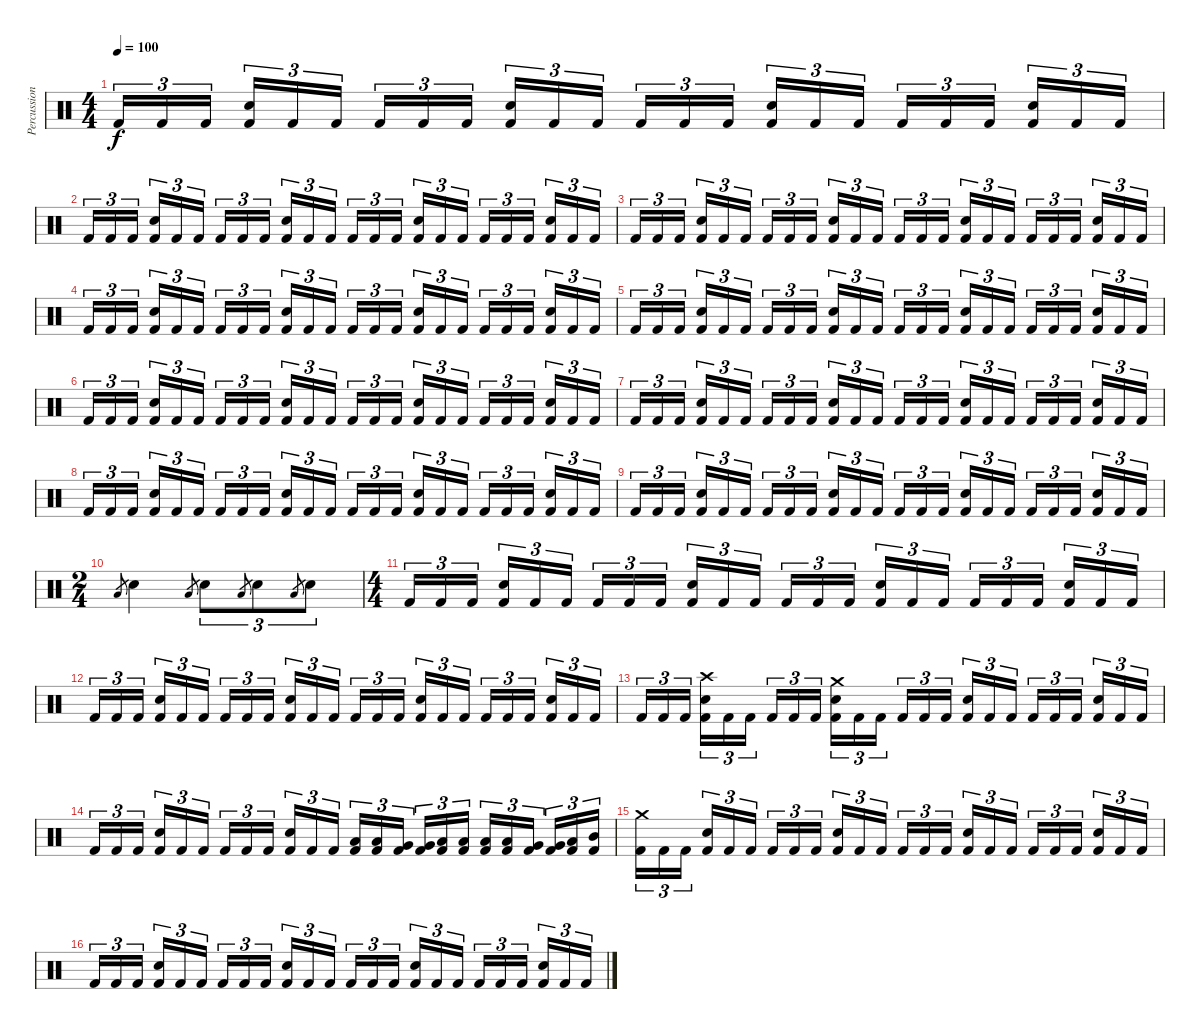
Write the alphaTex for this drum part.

\track ("Percussions" "Percussion") {instrument percussion}
\staff {score}
\articulation defaults
\ts (4 4)
\tempo 100
\clef neutral
\ks c "Kick (hit) 2".16{tu (3 2) dy f} "Kick (hit) 2".16{tu (3 2)} "Kick (hit) 2".16{tu (3 2)}
("Electric Snare (hit)" "Kick (hit) 2").16{tu (3 2)} "Kick (hit) 2".16{tu (3 2)} "Kick (hit) 2".16{tu (3 2)} "Kick (hit) 2".16{tu (3 2)} "Kick (hit) 2".16{tu (3 2)} "Kick (hit) 2".16{tu (3 2)} ("Electric Snare (hit)" "Kick (hit) 2").16{tu (3 2)} "Kick (hit) 2".16{tu (3 2)} "Kick (hit) 2".16{tu (3 2)} "Kick (hit) 2".16{tu (3 2)} "Kick (hit) 2".16{tu (3 2)} "Kick (hit) 2".16{tu (3 2)} ("Electric Snare (hit)" "Kick (hit) 2").16{tu (3 2)} "Kick (hit) 2".16{tu (3 2)} "Kick (hit) 2".16{tu (3 2)} "Kick (hit) 2".16{tu (3 2)} "Kick (hit) 2".16{tu (3 2)} "Kick (hit) 2".16{tu (3 2)} ("Electric Snare (hit)" "Kick (hit) 2").16{tu (3 2)} "Kick (hit) 2".16{tu (3 2)} "Kick (hit) 2".16{tu (3 2)} |
"Kick (hit) 2".16{tu (3 2)} "Kick (hit) 2".16{tu (3 2)} "Kick (hit) 2".16{tu (3 2)} ("Electric Snare (hit)" "Kick (hit) 2").16{tu (3 2)} "Kick (hit) 2".16{tu (3 2)} "Kick (hit) 2".16{tu (3 2)} "Kick (hit) 2".16{tu (3 2)} "Kick (hit) 2".16{tu (3 2)} "Kick (hit) 2".16{tu (3 2)} ("Electric Snare (hit)" "Kick (hit) 2").16{tu (3 2)} "Kick (hit) 2".16{tu (3 2)} "Kick (hit) 2".16{tu (3 2)} "Kick (hit) 2".16{tu (3 2)} "Kick (hit) 2".16{tu (3 2)} "Kick (hit) 2".16{tu (3 2)} ("Electric Snare (hit)" "Kick (hit) 2").16{tu (3 2)} "Kick (hit) 2".16{tu (3 2)} "Kick (hit) 2".16{tu (3 2)} "Kick (hit) 2".16{tu (3 2)} "Kick (hit) 2".16{tu (3 2)} "Kick (hit) 2".16{tu (3 2)} ("Electric Snare (hit)" "Kick (hit) 2").16{tu (3 2)} "Kick (hit) 2".16{tu (3 2)} "Kick (hit) 2".16{tu (3 2)} |
"Kick (hit) 2".16{tu (3 2)} "Kick (hit) 2".16{tu (3 2)} "Kick (hit) 2".16{tu (3 2)} ("Electric Snare (hit)" "Kick (hit) 2").16{tu (3 2)} "Kick (hit) 2".16{tu (3 2)} "Kick (hit) 2".16{tu (3 2)} "Kick (hit) 2".16{tu (3 2)} "Kick (hit) 2".16{tu (3 2)} "Kick (hit) 2".16{tu (3 2)} ("Electric Snare (hit)" "Kick (hit) 2").16{tu (3 2)} "Kick (hit) 2".16{tu (3 2)} "Kick (hit) 2".16{tu (3 2)} "Kick (hit) 2".16{tu (3 2)} "Kick (hit) 2".16{tu (3 2)} "Kick (hit) 2".16{tu (3 2)} ("Electric Snare (hit)" "Kick (hit) 2").16{tu (3 2)} "Kick (hit) 2".16{tu (3 2)} "Kick (hit) 2".16{tu (3 2)} "Kick (hit) 2".16{tu (3 2)} "Kick (hit) 2".16{tu (3 2)} "Kick (hit) 2".16{tu (3 2)} ("Electric Snare (hit)" "Kick (hit) 2").16{tu (3 2)} "Kick (hit) 2".16{tu (3 2)} "Kick (hit) 2".16{tu (3 2)} |
"Kick (hit) 2".16{tu (3 2)} "Kick (hit) 2".16{tu (3 2)} "Kick (hit) 2".16{tu (3 2)} ("Electric Snare (hit)" "Kick (hit) 2").16{tu (3 2)} "Kick (hit) 2".16{tu (3 2)} "Kick (hit) 2".16{tu (3 2)} "Kick (hit) 2".16{tu (3 2)} "Kick (hit) 2".16{tu (3 2)} "Kick (hit) 2".16{tu (3 2)} ("Electric Snare (hit)" "Kick (hit) 2").16{tu (3 2)} "Kick (hit) 2".16{tu (3 2)} "Kick (hit) 2".16{tu (3 2)} "Kick (hit) 2".16{tu (3 2)} "Kick (hit) 2".16{tu (3 2)} "Kick (hit) 2".16{tu (3 2)} ("Electric Snare (hit)" "Kick (hit) 2").16{tu (3 2)} "Kick (hit) 2".16{tu (3 2)} "Kick (hit) 2".16{tu (3 2)} "Kick (hit) 2".16{tu (3 2)} "Kick (hit) 2".16{tu (3 2)} "Kick (hit) 2".16{tu (3 2)} ("Electric Snare (hit)" "Kick (hit) 2").16{tu (3 2)} "Kick (hit) 2".16{tu (3 2)} "Kick (hit) 2".16{tu (3 2)} |
"Kick (hit) 2".16{tu (3 2)} "Kick (hit) 2".16{tu (3 2)} "Kick (hit) 2".16{tu (3 2)} ("Electric Snare (hit)" "Kick (hit) 2").16{tu (3 2)} "Kick (hit) 2".16{tu (3 2)} "Kick (hit) 2".16{tu (3 2)} "Kick (hit) 2".16{tu (3 2)} "Kick (hit) 2".16{tu (3 2)} "Kick (hit) 2".16{tu (3 2)} ("Electric Snare (hit)" "Kick (hit) 2").16{tu (3 2)} "Kick (hit) 2".16{tu (3 2)} "Kick (hit) 2".16{tu (3 2)} "Kick (hit) 2".16{tu (3 2)} "Kick (hit) 2".16{tu (3 2)} "Kick (hit) 2".16{tu (3 2)} ("Electric Snare (hit)" "Kick (hit) 2").16{tu (3 2)} "Kick (hit) 2".16{tu (3 2)} "Kick (hit) 2".16{tu (3 2)} "Kick (hit) 2".16{tu (3 2)} "Kick (hit) 2".16{tu (3 2)} "Kick (hit) 2".16{tu (3 2)} ("Electric Snare (hit)" "Kick (hit) 2").16{tu (3 2)} "Kick (hit) 2".16{tu (3 2)} "Kick (hit) 2".16{tu (3 2)} |
"Kick (hit) 2".16{tu (3 2)} "Kick (hit) 2".16{tu (3 2)} "Kick (hit) 2".16{tu (3 2)} ("Electric Snare (hit)" "Kick (hit) 2").16{tu (3 2)} "Kick (hit) 2".16{tu (3 2)} "Kick (hit) 2".16{tu (3 2)} "Kick (hit) 2".16{tu (3 2)} "Kick (hit) 2".16{tu (3 2)} "Kick (hit) 2".16{tu (3 2)} ("Electric Snare (hit)" "Kick (hit) 2").16{tu (3 2)} "Kick (hit) 2".16{tu (3 2)} "Kick (hit) 2".16{tu (3 2)} "Kick (hit) 2".16{tu (3 2)} "Kick (hit) 2".16{tu (3 2)} "Kick (hit) 2".16{tu (3 2)} ("Electric Snare (hit)" "Kick (hit) 2").16{tu (3 2)} "Kick (hit) 2".16{tu (3 2)} "Kick (hit) 2".16{tu (3 2)} "Kick (hit) 2".16{tu (3 2)} "Kick (hit) 2".16{tu (3 2)} "Kick (hit) 2".16{tu (3 2)} ("Electric Snare (hit)" "Kick (hit) 2").16{tu (3 2)} "Kick (hit) 2".16{tu (3 2)} "Kick (hit) 2".16{tu (3 2)} |
"Kick (hit) 2".16{tu (3 2)} "Kick (hit) 2".16{tu (3 2)} "Kick (hit) 2".16{tu (3 2)} ("Electric Snare (hit)" "Kick (hit) 2").16{tu (3 2)} "Kick (hit) 2".16{tu (3 2)} "Kick (hit) 2".16{tu (3 2)} "Kick (hit) 2".16{tu (3 2)} "Kick (hit) 2".16{tu (3 2)} "Kick (hit) 2".16{tu (3 2)} ("Electric Snare (hit)" "Kick (hit) 2").16{tu (3 2)} "Kick (hit) 2".16{tu (3 2)} "Kick (hit) 2".16{tu (3 2)} "Kick (hit) 2".16{tu (3 2)} "Kick (hit) 2".16{tu (3 2)} "Kick (hit) 2".16{tu (3 2)} ("Electric Snare (hit)" "Kick (hit) 2").16{tu (3 2)} "Kick (hit) 2".16{tu (3 2)} "Kick (hit) 2".16{tu (3 2)} "Kick (hit) 2".16{tu (3 2)} "Kick (hit) 2".16{tu (3 2)} "Kick (hit) 2".16{tu (3 2)} ("Electric Snare (hit)" "Kick (hit) 2").16{tu (3 2)} "Kick (hit) 2".16{tu (3 2)} "Kick (hit) 2".16{tu (3 2)} |
"Kick (hit) 2".16{tu (3 2)} "Kick (hit) 2".16{tu (3 2)} "Kick (hit) 2".16{tu (3 2)} ("Electric Snare (hit)" "Kick (hit) 2").16{tu (3 2)} "Kick (hit) 2".16{tu (3 2)} "Kick (hit) 2".16{tu (3 2)} "Kick (hit) 2".16{tu (3 2)} "Kick (hit) 2".16{tu (3 2)} "Kick (hit) 2".16{tu (3 2)} ("Electric Snare (hit)" "Kick (hit) 2").16{tu (3 2)} "Kick (hit) 2".16{tu (3 2)} "Kick (hit) 2".16{tu (3 2)} "Kick (hit) 2".16{tu (3 2)} "Kick (hit) 2".16{tu (3 2)} "Kick (hit) 2".16{tu (3 2)} ("Electric Snare (hit)" "Kick (hit) 2").16{tu (3 2)} "Kick (hit) 2".16{tu (3 2)} "Kick (hit) 2".16{tu (3 2)} "Kick (hit) 2".16{tu (3 2)} "Kick (hit) 2".16{tu (3 2)} "Kick (hit) 2".16{tu (3 2)} ("Electric Snare (hit)" "Kick (hit) 2").16{tu (3 2)} "Kick (hit) 2".16{tu (3 2)} "Kick (hit) 2".16{tu (3 2)} |
"Kick (hit) 2".16{tu (3 2)} "Kick (hit) 2".16{tu (3 2)} "Kick (hit) 2".16{tu (3 2)} ("Electric Snare (hit)" "Kick (hit) 2").16{tu (3 2)} "Kick (hit) 2".16{tu (3 2)} "Kick (hit) 2".16{tu (3 2)} "Kick (hit) 2".16{tu (3 2)} "Kick (hit) 2".16{tu (3 2)} "Kick (hit) 2".16{tu (3 2)} ("Electric Snare (hit)" "Kick (hit) 2").16{tu (3 2)} "Kick (hit) 2".16{tu (3 2)} "Kick (hit) 2".16{tu (3 2)} "Kick (hit) 2".16{tu (3 2)} "Kick (hit) 2".16{tu (3 2)} "Kick (hit) 2".16{tu (3 2)} ("Electric Snare (hit)" "Kick (hit) 2").16{tu (3 2)} "Kick (hit) 2".16{tu (3 2)} "Kick (hit) 2".16{tu (3 2)} "Kick (hit) 2".16{tu (3 2)} "Kick (hit) 2".16{tu (3 2)} "Kick (hit) 2".16{tu (3 2)} ("Electric Snare (hit)" "Kick (hit) 2").16{tu (3 2)} "Kick (hit) 2".16{tu (3 2)} "Kick (hit) 2".16{tu (3 2)} |
\ts (2 4)
"Low Floor Tom (hit)".8{gr} "Electric Snare (hit)".4 "Low Floor Tom (hit)".8{gr} "Electric Snare (hit)".8{tu (3 2)} "Low Floor Tom (hit)".8{gr} "Electric Snare (hit)".8{tu (3 2)} "Low Floor Tom (hit)".8{gr} "Electric Snare (hit)".8{tu (3 2)} |
\ts (4 4)
"Kick (hit) 2".16{tu (3 2)} "Kick (hit) 2".16{tu (3 2)} "Kick (hit) 2".16{tu (3 2)} ("Electric Snare (hit)" "Kick (hit) 2").16{tu (3 2)} "Kick (hit) 2".16{tu (3 2)} "Kick (hit) 2".16{tu (3 2)} "Kick (hit) 2".16{tu (3 2)} "Kick (hit) 2".16{tu (3 2)} "Kick (hit) 2".16{tu (3 2)} ("Electric Snare (hit)" "Kick (hit) 2").16{tu (3 2)} "Kick (hit) 2".16{tu (3 2)} "Kick (hit) 2".16{tu (3 2)} "Kick (hit) 2".16{tu (3 2)} "Kick (hit) 2".16{tu (3 2)} "Kick (hit) 2".16{tu (3 2)} ("Electric Snare (hit)" "Kick (hit) 2").16{tu (3 2)} "Kick (hit) 2".16{tu (3 2)} "Kick (hit) 2".16{tu (3 2)} "Kick (hit) 2".16{tu (3 2)} "Kick (hit) 2".16{tu (3 2)} "Kick (hit) 2".16{tu (3 2)} ("Electric Snare (hit)" "Kick (hit) 2").16{tu (3 2)} "Kick (hit) 2".16{tu (3 2)} "Kick (hit) 2".16{tu (3 2)} |
"Kick (hit) 2".16{tu (3 2)} "Kick (hit) 2".16{tu (3 2)} "Kick (hit) 2".16{tu (3 2)} ("Electric Snare (hit)" "Kick (hit) 2").16{tu (3 2)} "Kick (hit) 2".16{tu (3 2)} "Kick (hit) 2".16{tu (3 2)} "Kick (hit) 2".16{tu (3 2)} "Kick (hit) 2".16{tu (3 2)} "Kick (hit) 2".16{tu (3 2)} ("Electric Snare (hit)" "Kick (hit) 2").16{tu (3 2)} "Kick (hit) 2".16{tu (3 2)} "Kick (hit) 2".16{tu (3 2)} "Kick (hit) 2".16{tu (3 2)} "Kick (hit) 2".16{tu (3 2)} "Kick (hit) 2".16{tu (3 2)} ("Electric Snare (hit)" "Kick (hit) 2").16{tu (3 2)} "Kick (hit) 2".16{tu (3 2)} "Kick (hit) 2".16{tu (3 2)} "Kick (hit) 2".16{tu (3 2)} "Kick (hit) 2".16{tu (3 2)} "Kick (hit) 2".16{tu (3 2)} ("Electric Snare (hit)" "Kick (hit) 2").16{tu (3 2)} "Kick (hit) 2".16{tu (3 2)} "Kick (hit) 2".16{tu (3 2)} |
"Kick (hit) 2".16{tu (3 2)} "Kick (hit) 2".16{tu (3 2)} "Kick (hit) 2".16{tu (3 2)} ("Crash high (hit)" "Electric Snare (hit)" "Kick (hit) 2").16{tu (3 2)} "Kick (hit) 2".16{tu (3 2)} "Kick (hit) 2".16{tu (3 2)} "Kick (hit) 2".16{tu (3 2)} "Kick (hit) 2".16{tu (3 2)} "Kick (hit) 2".16{tu (3 2)} ("Crash medium (hit)" "Electric Snare (hit)" "Kick (hit) 2").16{tu (3 2)} "Kick (hit) 2".16{tu (3 2)} "Kick (hit) 2".16{tu (3 2)} "Kick (hit) 2".16{tu (3 2)} "Kick (hit) 2".16{tu (3 2)} "Kick (hit) 2".16{tu (3 2)} ("Electric Snare (hit)" "Kick (hit) 2").16{tu (3 2)} "Kick (hit) 2".16{tu (3 2)} "Kick (hit) 2".16{tu (3 2)} "Kick (hit) 2".16{tu (3 2)} "Kick (hit) 2".16{tu (3 2)} "Kick (hit) 2".16{tu (3 2)} ("Electric Snare (hit)" "Kick (hit) 2").16{tu (3 2)} "Kick (hit) 2".16{tu (3 2)} "Kick (hit) 2".16{tu (3 2)} |
"Kick (hit) 2".16{tu (3 2)} "Kick (hit) 2".16{tu (3 2)} "Kick (hit) 2".16{tu (3 2)} ("Electric Snare (hit)" "Kick (hit) 2").16{tu (3 2)} "Kick (hit) 2".16{tu (3 2)} "Kick (hit) 2".16{tu (3 2)} "Kick (hit) 2".16{tu (3 2)} "Kick (hit) 2".16{tu (3 2)} "Kick (hit) 2".16{tu (3 2)} ("Electric Snare (hit)" "Kick (hit) 2").16{tu (3 2)} "Kick (hit) 2".16{tu (3 2)} "Kick (hit) 2".16{tu (3 2)} ("Low Tom (hit)" "Kick (hit) 2").16{tu (3 2)} ("Low Tom (hit)" "Kick (hit) 2").16{tu (3 2)} ("Very Low Tom (hit)" "Kick (hit) 2").16{tu (3 2)} ("Very Low Tom (hit)" "Kick (hit) 2").16{tu (3 2)} ("Low Floor Tom (hit)" "Kick (hit) 2").16{tu (3 2)} ("Low Floor Tom (hit)" "Kick (hit) 2").16{tu (3 2)} ("Low Tom (hit)" "Kick (hit) 2").16{tu (3 2)} ("Low Tom (hit)" "Kick (hit) 2").16{tu (3 2)} ("Very Low Tom (hit)" "Kick (hit) 2").16{tu (3 2)} ("Very Low Tom (hit)" "Kick (hit) 2").16{tu (3 2)} ("Low Floor Tom (hit)" "Kick (hit) 2").16{tu (3 2)} ("Mid Tom (hit)" "Kick (hit) 2").16{tu (3 2)} |
("Crash medium (hit)" "Kick (hit) 2").16{tu (3 2)} "Kick (hit) 2".16{tu (3 2)} "Kick (hit) 2".16{tu (3 2)} ("Electric Snare (hit)" "Kick (hit) 2").16{tu (3 2)} "Kick (hit) 2".16{tu (3 2)} "Kick (hit) 2".16{tu (3 2)} "Kick (hit) 2".16{tu (3 2)} "Kick (hit) 2".16{tu (3 2)} "Kick (hit) 2".16{tu (3 2)} ("Electric Snare (hit)" "Kick (hit) 2").16{tu (3 2)} "Kick (hit) 2".16{tu (3 2)} "Kick (hit) 2".16{tu (3 2)} "Kick (hit) 2".16{tu (3 2)} "Kick (hit) 2".16{tu (3 2)} "Kick (hit) 2".16{tu (3 2)} ("Electric Snare (hit)" "Kick (hit) 2").16{tu (3 2)} "Kick (hit) 2".16{tu (3 2)} "Kick (hit) 2".16{tu (3 2)} "Kick (hit) 2".16{tu (3 2)} "Kick (hit) 2".16{tu (3 2)} "Kick (hit) 2".16{tu (3 2)} ("Electric Snare (hit)" "Kick (hit) 2").16{tu (3 2)} "Kick (hit) 2".16{tu (3 2)} "Kick (hit) 2".16{tu (3 2)} |
"Kick (hit) 2".16{tu (3 2)} "Kick (hit) 2".16{tu (3 2)} "Kick (hit) 2".16{tu (3 2)} ("Electric Snare (hit)" "Kick (hit) 2").16{tu (3 2)} "Kick (hit) 2".16{tu (3 2)} "Kick (hit) 2".16{tu (3 2)} "Kick (hit) 2".16{tu (3 2)} "Kick (hit) 2".16{tu (3 2)} "Kick (hit) 2".16{tu (3 2)} ("Electric Snare (hit)" "Kick (hit) 2").16{tu (3 2)} "Kick (hit) 2".16{tu (3 2)} "Kick (hit) 2".16{tu (3 2)} "Kick (hit) 2".16{tu (3 2)} "Kick (hit) 2".16{tu (3 2)} "Kick (hit) 2".16{tu (3 2)} ("Electric Snare (hit)" "Kick (hit) 2").16{tu (3 2)} "Kick (hit) 2".16{tu (3 2)} "Kick (hit) 2".16{tu (3 2)} "Kick (hit) 2".16{tu (3 2)} "Kick (hit) 2".16{tu (3 2)} "Kick (hit) 2".16{tu (3 2)} ("Electric Snare (hit)" "Kick (hit) 2").16{tu (3 2)} "Kick (hit) 2".16{tu (3 2)} "Kick (hit) 2".16{tu (3 2)}
